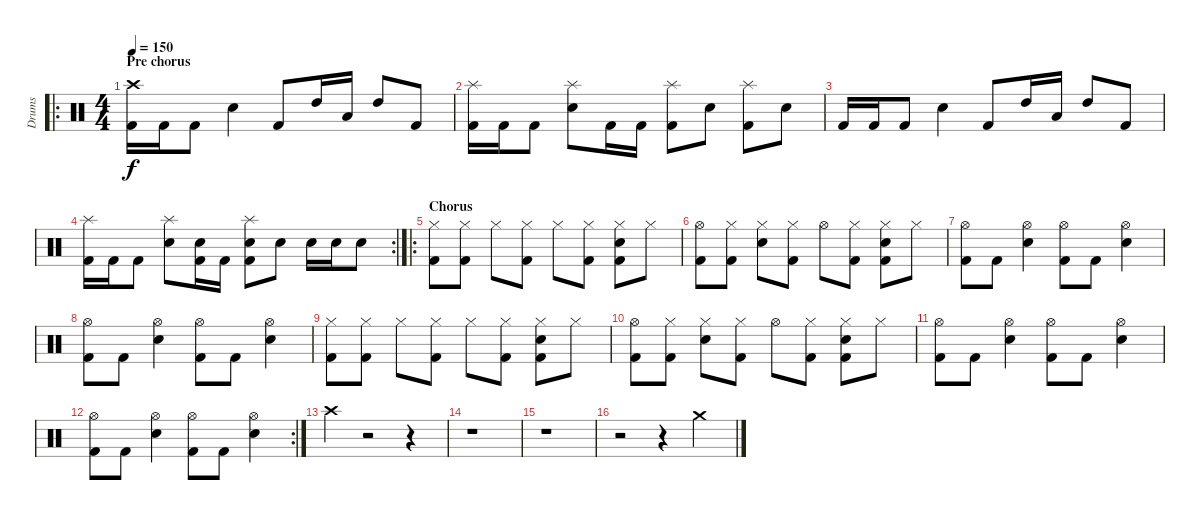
\track ("Drums" "Drums") {instrument percussion}
\staff {score}
\articulation defaults
\ro
\ts (4 4)
\section ("" "Pre chorus")
\tempo 150
\clef neutral
\ks c
("Crash high (hit)" "Kick (hit) 2").16{dy f} "Kick (hit) 2".16 "Kick (hit) 2".8 "Electric Snare (hit)".4 "Kick (hit) 2".8 "High Tom (hit)".16 "Low Tom (hit)".16 "High Tom (hit)".8 "Kick (hit) 2".8 |
("Splash (hit)" "Kick (hit) 2").16 "Kick (hit) 2".16 "Kick (hit) 2".8 ("Splash (hit)" "Electric Snare (hit)").8 "Kick (hit) 2".16 "Kick (hit) 2".16 ("Splash (hit)" "Kick (hit) 2").8 "Electric Snare (hit)".8 ("Splash (hit)" "Kick (hit) 2").8 "Electric Snare (hit)".8 |
"Kick (hit) 2".16 "Kick (hit) 2".16 "Kick (hit) 2".8 "Electric Snare (hit)".4 "Kick (hit) 2".8 "High Tom (hit)".16 "Low Tom (hit)".16 "High Tom (hit)".8 "Kick (hit) 2".8 |
\rc 2
("Splash (hit)" "Kick (hit) 2").16 "Kick (hit) 2".16 "Kick (hit) 2".8 ("Splash (hit)" "Electric Snare (hit)").8 ("Electric Snare (hit)" "Kick (hit) 2").16 "Kick (hit) 2".16 ("Splash (hit)" "Electric Snare (hit)" "Kick (hit) 2").8 "Electric Snare (hit)".8 "Electric Snare (hit)".16 "Electric Snare (hit)".16 "Electric Snare (hit)".8 |
\ro
\section ("" "Chorus")
("Hi-Hat (closed)" "Kick (hit) 2").8 ("Hi-Hat (closed)" "Kick (hit) 2").8 "Hi-Hat (closed)".8 ("Hi-Hat (closed)" "Kick (hit) 2").8 "Hi-Hat (closed)".8 ("Hi-Hat (closed)" "Kick (hit) 2").8 ("Hi-Hat (closed)" "Electric Snare (hit)" "Kick (hit) 2").8 "Hi-Hat (closed)".8 |
("Hi-Hat (open)" "Kick (hit) 2").8 ("Hi-Hat (closed)" "Kick (hit) 2").8 ("Hi-Hat (closed)" "Electric Snare (hit)").8 ("Hi-Hat (closed)" "Kick (hit) 2").8 "Hi-Hat (open)".8 ("Hi-Hat (closed)" "Kick (hit) 2").8 ("Hi-Hat (closed)" "Electric Snare (hit)" "Kick (hit) 2").8 "Hi-Hat (closed)".8 |
("Hi-Hat (open)" "Kick (hit) 2").8 "Kick (hit) 2".8 ("Hi-Hat (open)" "Electric Snare (hit)").4 ("Hi-Hat (open)" "Kick (hit) 2").8 "Kick (hit) 2".8 ("Hi-Hat (open)" "Electric Snare (hit)").4 |
("Hi-Hat (open)" "Kick (hit) 2").8 "Kick (hit) 2".8 ("Hi-Hat (open)" "Electric Snare (hit)").4 ("Hi-Hat (open)" "Kick (hit) 2").8 "Kick (hit) 2".8 ("Hi-Hat (open)" "Electric Snare (hit)").4 |
("Hi-Hat (closed)" "Kick (hit) 2").8 ("Hi-Hat (closed)" "Kick (hit) 2").8 "Hi-Hat (closed)".8 ("Hi-Hat (closed)" "Kick (hit) 2").8 "Hi-Hat (closed)".8 ("Hi-Hat (closed)" "Kick (hit) 2").8 ("Hi-Hat (closed)" "Electric Snare (hit)" "Kick (hit) 2").8 "Hi-Hat (closed)".8 |
("Hi-Hat (open)" "Kick (hit) 2").8 ("Hi-Hat (closed)" "Kick (hit) 2").8 ("Hi-Hat (closed)" "Electric Snare (hit)").8 ("Hi-Hat (closed)" "Kick (hit) 2").8 "Hi-Hat (open)".8 ("Hi-Hat (closed)" "Kick (hit) 2").8 ("Hi-Hat (closed)" "Electric Snare (hit)" "Kick (hit) 2").8 "Hi-Hat (closed)".8 |
("Hi-Hat (open)" "Kick (hit) 2").8 "Kick (hit) 2".8 ("Hi-Hat (open)" "Electric Snare (hit)").4 ("Hi-Hat (open)" "Kick (hit) 2").8 "Kick (hit) 2".8 ("Hi-Hat (open)" "Electric Snare (hit)").4 |
\rc 2
("Hi-Hat (open)" "Kick (hit) 2").8 "Kick (hit) 2".8 ("Hi-Hat (open)" "Electric Snare (hit)").4 ("Hi-Hat (open)" "Kick (hit) 2").8 "Kick (hit) 2".8 ("Hi-Hat (open)" "Electric Snare (hit)").4 |
"Crash high (hit)".4 r.2 r.4 |
r.1 |
r.1 |
r.2 r.4 "Crash medium (hit)".4
